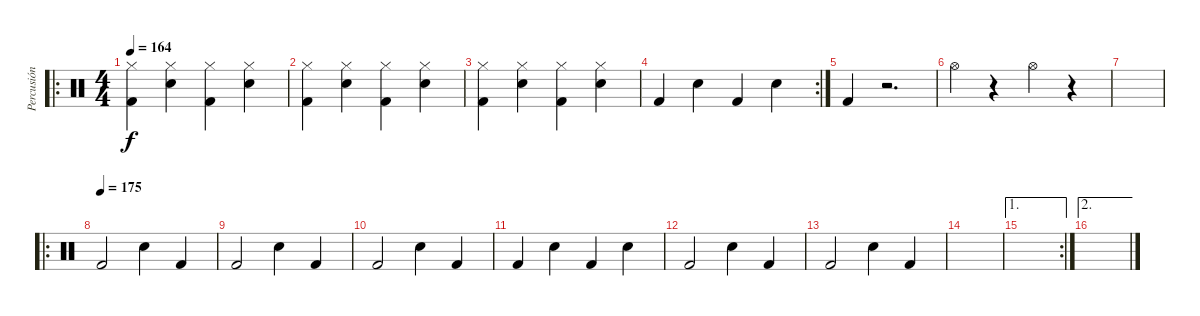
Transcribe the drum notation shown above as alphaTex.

\track ("Percusión" "Percusión") {mute instrument percussion}
\staff {score}
\articulation defaults
\ro
\ts (4 4)
\tempo 164
\clef neutral
\ks c
("Kick (hit) 2" "Hi-Hat (closed)").4{dy f} ("Electric Snare (hit)" "Hi-Hat (closed)").4 ("Kick (hit) 2" "Hi-Hat (closed)").4 ("Electric Snare (hit)" "Hi-Hat (closed)").4 |
("Kick (hit) 2" "Hi-Hat (closed)").4 ("Electric Snare (hit)" "Hi-Hat (closed)").4 ("Kick (hit) 2" "Hi-Hat (closed)").4 ("Electric Snare (hit)" "Hi-Hat (closed)").4 |
("Kick (hit) 2" "Hi-Hat (closed)").4 ("Electric Snare (hit)" "Hi-Hat (closed)").4 ("Kick (hit) 2" "Hi-Hat (closed)").4 ("Electric Snare (hit)" "Hi-Hat (closed)").4 |
\rc 2 "Kick (hit) 2".4 "Electric Snare (hit)".4 "Kick (hit) 2".4 "Electric Snare (hit)".4
|
"Kick (hit) 2".4 r.2{d} |
"Hi-Hat (open)".4 r.4 "Hi-Hat (open)".4 r.4 |
|
\ro
\tempo (175)
"Kick (hit) 2".2 "Electric Snare (hit)".4 "Kick (hit) 2".4 |
"Kick (hit) 2".2 "Electric Snare (hit)".4 "Kick (hit) 2".4 |
"Kick (hit) 2".2 "Electric Snare (hit)".4 "Kick (hit) 2".4 |
"Kick (hit) 2".4 "Electric Snare (hit)".4 "Kick (hit) 2".4 "Electric Snare (hit)".4 |
"Kick (hit) 2".2 "Electric Snare (hit)".4 "Kick (hit) 2".4 |
"Kick (hit) 2".2 "Electric Snare (hit)".4 "Kick (hit) 2".4 |
|
\ae 1
\rc 2
|
\ae 2
